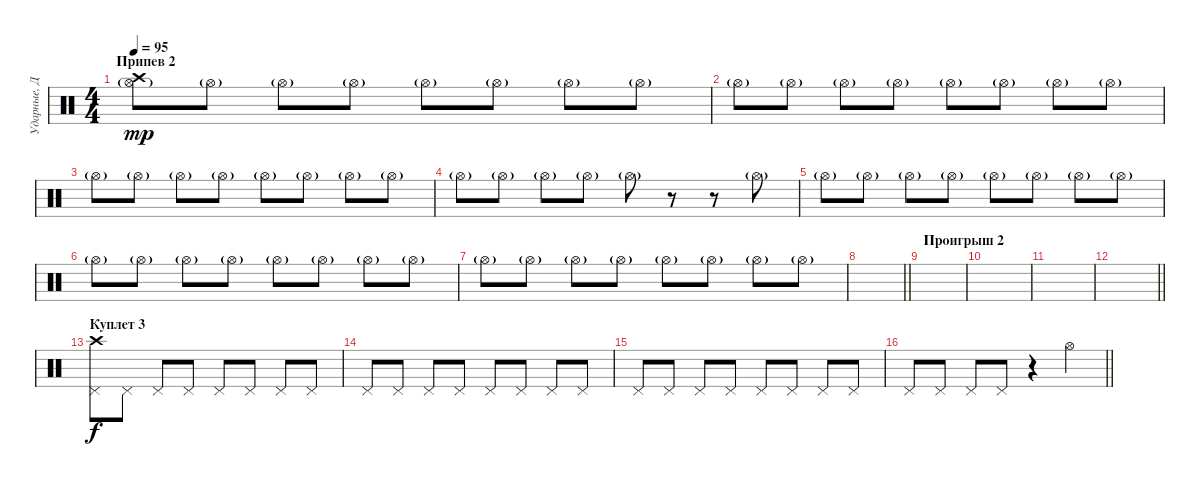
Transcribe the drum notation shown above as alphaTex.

\track ("Ударные, Дэн" "Ударные, Д") {instrument percussion}
\staff {score}
\articulation defaults
\ts (4 4)
\section ("" "Припев 2")
\tempo 95
\clef neutral
\ks c
("Hi-Hat (open)"{g} "Crash high (hit)").8{dy mp} "Hi-Hat (open)"{g}.8 "Hi-Hat (open)"{g}.8 "Hi-Hat (open)"{g}.8 "Hi-Hat (open)"{g}.8 "Hi-Hat (open)"{g}.8 "Hi-Hat (open)"{g}.8 "Hi-Hat (open)"{g}.8 |
"Hi-Hat (open)"{g}.8 "Hi-Hat (open)"{g}.8 "Hi-Hat (open)"{g}.8 "Hi-Hat (open)"{g}.8 "Hi-Hat (open)"{g}.8 "Hi-Hat (open)"{g}.8 "Hi-Hat (open)"{g}.8 "Hi-Hat (open)"{g}.8 |
"Hi-Hat (open)"{g}.8 "Hi-Hat (open)"{g}.8 "Hi-Hat (open)"{g}.8 "Hi-Hat (open)"{g}.8 "Hi-Hat (open)"{g}.8 "Hi-Hat (open)"{g}.8 "Hi-Hat (open)"{g}.8 "Hi-Hat (open)"{g}.8 |
"Hi-Hat (open)"{g}.8 "Hi-Hat (open)"{g}.8 "Hi-Hat (open)"{g}.8 "Hi-Hat (open)"{g}.8 "Hi-Hat (open)"{g}.8 r.8 r.8 "Hi-Hat (open)"{g}.8 |
"Hi-Hat (open)"{g}.8 "Hi-Hat (open)"{g}.8 "Hi-Hat (open)"{g}.8 "Hi-Hat (open)"{g}.8 "Hi-Hat (open)"{g}.8 "Hi-Hat (open)"{g}.8 "Hi-Hat (open)"{g}.8 "Hi-Hat (open)"{g}.8 |
"Hi-Hat (open)"{g}.8 "Hi-Hat (open)"{g}.8 "Hi-Hat (open)"{g}.8 "Hi-Hat (open)"{g}.8 "Hi-Hat (open)"{g}.8 "Hi-Hat (open)"{g}.8 "Hi-Hat (open)"{g}.8 "Hi-Hat (open)"{g}.8 |
"Hi-Hat (open)"{g}.8 "Hi-Hat (open)"{g}.8 "Hi-Hat (open)"{g}.8 "Hi-Hat (open)"{g}.8 "Hi-Hat (open)"{g}.8 "Hi-Hat (open)"{g}.8 "Hi-Hat (open)"{g}.8 "Hi-Hat (open)"{g}.8 |
\barLineRight lightlight
|
\section ("" "Проигрыш 2")
|
|
|
\barLineRight lightlight
|
\section ("" "Куплет 3")
("Pedal Hi-Hat (hit)" "Crash high (hit)").8{dy f} "Pedal Hi-Hat (hit)".8 "Pedal Hi-Hat (hit)".8 "Pedal Hi-Hat (hit)".8 "Pedal Hi-Hat (hit)".8 "Pedal Hi-Hat (hit)".8 "Pedal Hi-Hat (hit)".8 "Pedal Hi-Hat (hit)".8 |
"Pedal Hi-Hat (hit)".8 "Pedal Hi-Hat (hit)".8 "Pedal Hi-Hat (hit)".8 "Pedal Hi-Hat (hit)".8 "Pedal Hi-Hat (hit)".8 "Pedal Hi-Hat (hit)".8 "Pedal Hi-Hat (hit)".8 "Pedal Hi-Hat (hit)".8 |
"Pedal Hi-Hat (hit)".8 "Pedal Hi-Hat (hit)".8 "Pedal Hi-Hat (hit)".8 "Pedal Hi-Hat (hit)".8 "Pedal Hi-Hat (hit)".8 "Pedal Hi-Hat (hit)".8 "Pedal Hi-Hat (hit)".8 "Pedal Hi-Hat (hit)".8 |
\barLineRight lightlight "Pedal Hi-Hat (hit)".8 "Pedal Hi-Hat (hit)".8 "Pedal Hi-Hat (hit)".8 "Pedal Hi-Hat (hit)".8
r.4 "Hi-Hat (open)".4
